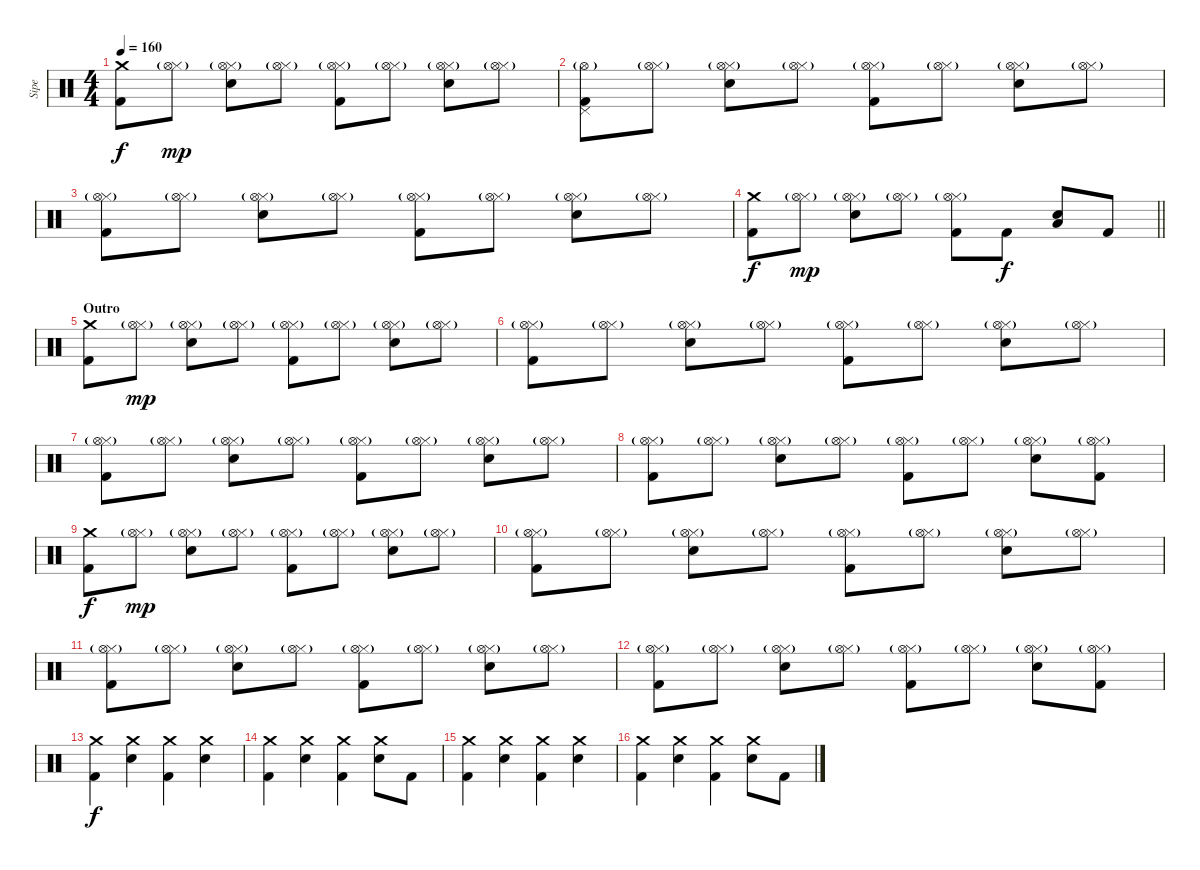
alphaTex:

\track ("Sipe" "Sipe") {instrument percussion}
\staff {score}
\articulation defaults
\ts (4 4)
\tempo 160
\clef neutral
\ks c
("Crash medium (hit)" "Kick (hit) 2").8{dy f} ("Hi-Hat (closed)" "Hi-Hat (open)"{g}).8{dy mp} ("Hi-Hat (closed)" "Snare (hit) 2" "Hi-Hat (open)"{g}).8 ("Hi-Hat (closed)" "Hi-Hat (open)"{g}).8 ("Hi-Hat (closed)" "Kick (hit) 2" "Hi-Hat (open)"{g}).8 ("Hi-Hat (closed)" "Hi-Hat (open)"{g}).8 ("Hi-Hat (closed)" "Snare (hit) 2" "Hi-Hat (open)"{g}).8 ("Hi-Hat (closed)" "Hi-Hat (open)"{g}).8 |
("Pedal Hi-Hat (hit)" "Kick (hit) 2" "Hi-Hat (open)"{g}).8 ("Hi-Hat (closed)" "Hi-Hat (open)"{g}).8 ("Hi-Hat (closed)" "Snare (hit) 2" "Hi-Hat (open)"{g}).8 ("Hi-Hat (closed)" "Hi-Hat (open)"{g}).8 ("Hi-Hat (closed)" "Kick (hit) 2" "Hi-Hat (open)"{g}).8 ("Hi-Hat (closed)" "Hi-Hat (open)"{g}).8 ("Hi-Hat (closed)" "Snare (hit) 2" "Hi-Hat (open)"{g}).8 ("Hi-Hat (closed)" "Hi-Hat (open)"{g}).8 |
("Hi-Hat (closed)" "Kick (hit) 2" "Hi-Hat (open)"{g}).8 ("Hi-Hat (closed)" "Hi-Hat (open)"{g}).8 ("Hi-Hat (closed)" "Snare (hit) 2" "Hi-Hat (open)"{g}).8 ("Hi-Hat (closed)" "Hi-Hat (open)"{g}).8 ("Hi-Hat (closed)" "Kick (hit) 2" "Hi-Hat (open)"{g}).8 ("Hi-Hat (closed)" "Hi-Hat (open)"{g}).8 ("Hi-Hat (closed)" "Snare (hit) 2" "Hi-Hat (open)"{g}).8 ("Hi-Hat (closed)" "Hi-Hat (open)"{g}).8 |
\barLineRight lightlight
("Crash medium (hit)" "Kick (hit) 2").8{dy f} ("Hi-Hat (closed)" "Hi-Hat (open)"{g}).8{dy mp} ("Hi-Hat (closed)" "Snare (hit) 2" "Hi-Hat (open)"{g}).8 ("Hi-Hat (closed)" "Hi-Hat (open)"{g}).8 ("Hi-Hat (closed)" "Kick (hit) 2" "Hi-Hat (open)"{g}).8 "Kick (hit) 2".8{dy f} ("Low Floor Tom (hit)" "Snare (hit) 2").8 "Kick (hit) 2".8 |
\section ("" "Outro")
("Crash medium (hit)" "Kick (hit) 2").8 ("Hi-Hat (closed)" "Hi-Hat (open)"{g}).8{dy mp} ("Hi-Hat (closed)" "Snare (hit) 2" "Hi-Hat (open)"{g}).8 ("Hi-Hat (closed)" "Hi-Hat (open)"{g}).8 ("Hi-Hat (closed)" "Kick (hit) 2" "Hi-Hat (open)"{g}).8 ("Hi-Hat (closed)" "Hi-Hat (open)"{g}).8 ("Hi-Hat (closed)" "Snare (hit) 2" "Hi-Hat (open)"{g}).8 ("Hi-Hat (closed)" "Hi-Hat (open)"{g}).8 |
("Hi-Hat (closed)" "Kick (hit) 2" "Hi-Hat (open)"{g}).8 ("Hi-Hat (closed)" "Hi-Hat (open)"{g}).8 ("Hi-Hat (closed)" "Snare (hit) 2" "Hi-Hat (open)"{g}).8 ("Hi-Hat (closed)" "Hi-Hat (open)"{g}).8 ("Hi-Hat (closed)" "Kick (hit) 2" "Hi-Hat (open)"{g}).8 ("Hi-Hat (closed)" "Hi-Hat (open)"{g}).8 ("Hi-Hat (closed)" "Snare (hit) 2" "Hi-Hat (open)"{g}).8 ("Hi-Hat (closed)" "Hi-Hat (open)"{g}).8 |
("Hi-Hat (closed)" "Kick (hit) 2" "Hi-Hat (open)"{g}).8 ("Hi-Hat (closed)" "Hi-Hat (open)"{g}).8 ("Hi-Hat (closed)" "Snare (hit) 2" "Hi-Hat (open)"{g}).8 ("Hi-Hat (closed)" "Hi-Hat (open)"{g}).8 ("Hi-Hat (closed)" "Kick (hit) 2" "Hi-Hat (open)"{g}).8 ("Hi-Hat (closed)" "Hi-Hat (open)"{g}).8 ("Hi-Hat (closed)" "Snare (hit) 2" "Hi-Hat (open)"{g}).8 ("Hi-Hat (closed)" "Hi-Hat (open)"{g}).8 |
("Hi-Hat (closed)" "Kick (hit) 2" "Hi-Hat (open)"{g}).8 ("Hi-Hat (closed)" "Hi-Hat (open)"{g}).8 ("Hi-Hat (closed)" "Snare (hit) 2" "Hi-Hat (open)"{g}).8 ("Hi-Hat (closed)" "Hi-Hat (open)"{g}).8 ("Hi-Hat (closed)" "Kick (hit) 2" "Hi-Hat (open)"{g}).8 ("Hi-Hat (closed)" "Hi-Hat (open)"{g}).8 ("Hi-Hat (closed)" "Snare (hit) 2" "Hi-Hat (open)"{g}).8 ("Hi-Hat (closed)" "Kick (hit) 2" "Hi-Hat (open)"{g}).8 |
("Crash medium (hit)" "Kick (hit) 2").8{dy f} ("Hi-Hat (closed)" "Hi-Hat (open)"{g}).8{dy mp} ("Hi-Hat (closed)" "Snare (hit) 2" "Hi-Hat (open)"{g}).8 ("Hi-Hat (closed)" "Hi-Hat (open)"{g}).8 ("Hi-Hat (closed)" "Kick (hit) 2" "Hi-Hat (open)"{g}).8 ("Hi-Hat (closed)" "Hi-Hat (open)"{g}).8 ("Hi-Hat (closed)" "Snare (hit) 2" "Hi-Hat (open)"{g}).8 ("Hi-Hat (closed)" "Hi-Hat (open)"{g}).8 |
("Hi-Hat (closed)" "Kick (hit) 2" "Hi-Hat (open)"{g}).8 ("Hi-Hat (closed)" "Hi-Hat (open)"{g}).8 ("Hi-Hat (closed)" "Snare (hit) 2" "Hi-Hat (open)"{g}).8 ("Hi-Hat (closed)" "Hi-Hat (open)"{g}).8 ("Hi-Hat (closed)" "Kick (hit) 2" "Hi-Hat (open)"{g}).8 ("Hi-Hat (closed)" "Hi-Hat (open)"{g}).8 ("Hi-Hat (closed)" "Snare (hit) 2" "Hi-Hat (open)"{g}).8 ("Hi-Hat (closed)" "Hi-Hat (open)"{g}).8 |
("Hi-Hat (closed)" "Kick (hit) 2" "Hi-Hat (open)"{g}).8 ("Hi-Hat (closed)" "Hi-Hat (open)"{g}).8 ("Hi-Hat (closed)" "Snare (hit) 2" "Hi-Hat (open)"{g}).8 ("Hi-Hat (closed)" "Hi-Hat (open)"{g}).8 ("Hi-Hat (closed)" "Kick (hit) 2" "Hi-Hat (open)"{g}).8 ("Hi-Hat (closed)" "Hi-Hat (open)"{g}).8 ("Hi-Hat (closed)" "Snare (hit) 2" "Hi-Hat (open)"{g}).8 ("Hi-Hat (closed)" "Hi-Hat (open)"{g}).8 |
("Hi-Hat (closed)" "Kick (hit) 2" "Hi-Hat (open)"{g}).8 ("Hi-Hat (closed)" "Hi-Hat (open)"{g}).8 ("Hi-Hat (closed)" "Snare (hit) 2" "Hi-Hat (open)"{g}).8 ("Hi-Hat (closed)" "Hi-Hat (open)"{g}).8 ("Hi-Hat (closed)" "Kick (hit) 2" "Hi-Hat (open)"{g}).8 ("Hi-Hat (closed)" "Hi-Hat (open)"{g}).8 ("Hi-Hat (closed)" "Snare (hit) 2" "Hi-Hat (open)"{g}).8 ("Hi-Hat (closed)" "Kick (hit) 2" "Hi-Hat (open)"{g}).8 |
("Crash medium (hit)" "Kick (hit) 2").4{dy f} ("Crash medium (hit)" "Snare (hit) 2").4 ("Crash medium (hit)" "Kick (hit) 2").4 ("Crash medium (hit)" "Snare (hit) 2").4 |
("Crash medium (hit)" "Kick (hit) 2").4 ("Crash medium (hit)" "Snare (hit) 2").4 ("Crash medium (hit)" "Kick (hit) 2").4 ("Crash medium (hit)" "Snare (hit) 2").8 "Kick (hit) 2".8 |
("Crash medium (hit)" "Kick (hit) 2").4 ("Crash medium (hit)" "Snare (hit) 2").4 ("Crash medium (hit)" "Kick (hit) 2").4 ("Crash medium (hit)" "Snare (hit) 2").4 |
("Crash medium (hit)" "Kick (hit) 2").4 ("Crash medium (hit)" "Snare (hit) 2").4 ("Crash medium (hit)" "Kick (hit) 2").4 ("Crash medium (hit)" "Snare (hit) 2").8 "Kick (hit) 2".8
